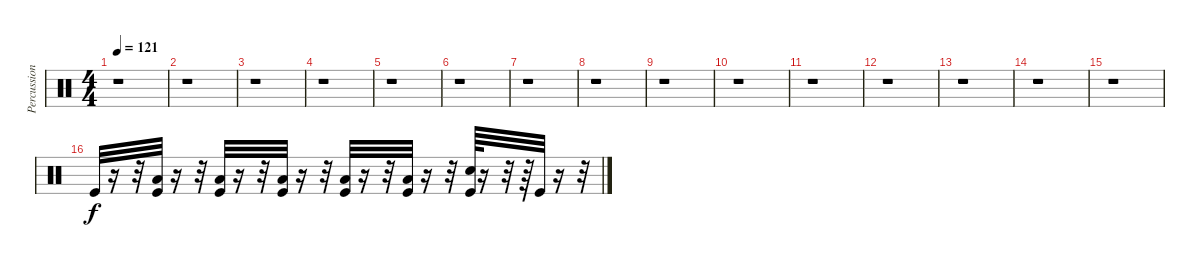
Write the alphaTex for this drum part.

\track ("Percussion" "Percussion") {instrument percussion}
\staff {score}
\articulation defaults
\ts (4 4)
\tempo 121
\clef neutral
\ks c
r.1{dy f} |
r.1 |
r.1 |
r.1 |
r.1 |
r.1 |
r.1 |
r.1 |
r.1 |
r.1 |
r.1 |
r.1 |
r.1 |
r.1 |
r.1 |
"Kick (hit)".32 r.16 r.32 ("Low Floor Tom (hit)" "Kick (hit)").32 r.16 r.32 ("Low Floor Tom (hit)" "Kick (hit)").32 r.16 r.32 ("Low Floor Tom (hit)" "Kick (hit)").32 r.16 r.32 ("Low Floor Tom (hit)" "Kick (hit)").32 r.16 r.32 ("Low Floor Tom (hit)" "Kick (hit)").32 r.16 r.32 ("Kick (hit)" "Snare (hit) 2").64 r.16 r.32 r.64 "Kick (hit)".32 r.16 r.32
